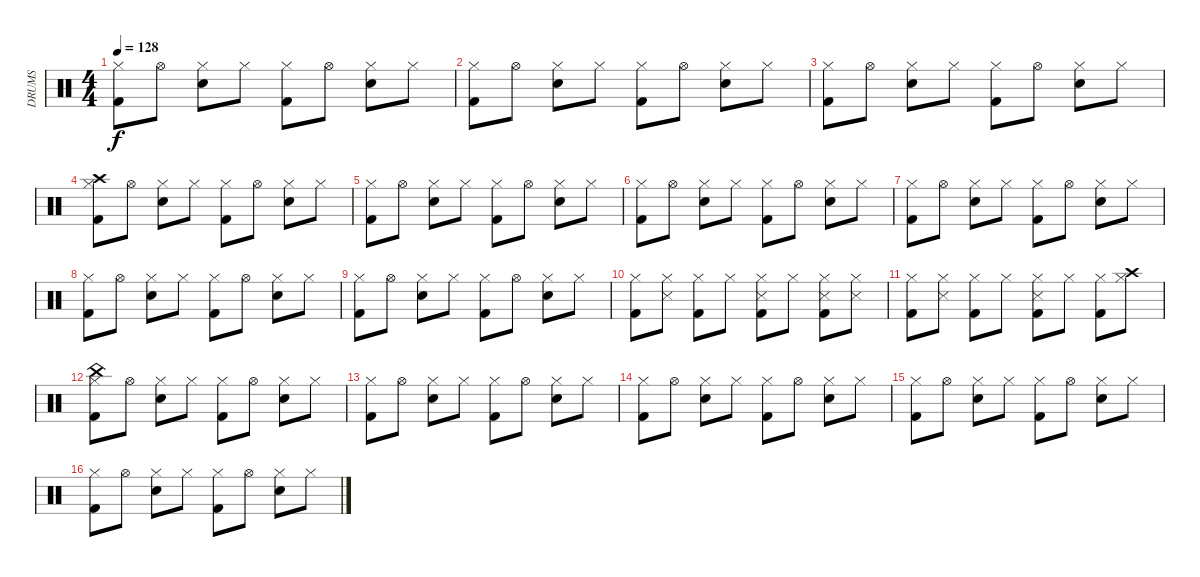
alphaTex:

\track ("DRUMS" "DRUMS") {instrument percussion}
\staff {score}
\articulation defaults
\ts (4 4)
\tempo 128
\clef neutral
\ks c
("Kick (hit) 2" "Hi-Hat (closed)").8{dy f} "Hi-Hat (open)".8 ("Electric Snare (hit)" "Hi-Hat (closed)").8 "Hi-Hat (closed)".8 ("Kick (hit) 2" "Hi-Hat (closed)").8 "Hi-Hat (open)".8 ("Electric Snare (hit)" "Hi-Hat (closed)").8 "Hi-Hat (closed)".8 |
("Kick (hit) 2" "Hi-Hat (closed)").8 "Hi-Hat (open)".8 ("Electric Snare (hit)" "Hi-Hat (closed)").8 "Hi-Hat (closed)".8 ("Kick (hit) 2" "Hi-Hat (closed)").8 "Hi-Hat (open)".8 ("Electric Snare (hit)" "Hi-Hat (closed)").8 "Hi-Hat (closed)".8 |
("Kick (hit) 2" "Hi-Hat (closed)").8 "Hi-Hat (open)".8 ("Electric Snare (hit)" "Hi-Hat (closed)").8 "Hi-Hat (closed)".8 ("Kick (hit) 2" "Hi-Hat (closed)").8 "Hi-Hat (open)".8 ("Electric Snare (hit)" "Hi-Hat (closed)").8 "Hi-Hat (closed)".8 |
("Kick (hit) 2" "Hi-Hat (closed)" "Crash high (hit)").8 "Hi-Hat (open)".8 ("Electric Snare (hit)" "Hi-Hat (closed)").8 "Hi-Hat (closed)".8 ("Kick (hit) 2" "Hi-Hat (closed)").8 "Hi-Hat (open)".8 ("Electric Snare (hit)" "Hi-Hat (closed)").8 "Hi-Hat (closed)".8 |
("Kick (hit) 2" "Hi-Hat (closed)").8 "Hi-Hat (open)".8 ("Electric Snare (hit)" "Hi-Hat (closed)").8 "Hi-Hat (closed)".8 ("Kick (hit) 2" "Hi-Hat (closed)").8 "Hi-Hat (open)".8 ("Electric Snare (hit)" "Hi-Hat (closed)").8 "Hi-Hat (closed)".8 |
("Kick (hit) 2" "Hi-Hat (closed)").8 "Hi-Hat (open)".8 ("Electric Snare (hit)" "Hi-Hat (closed)").8 "Hi-Hat (closed)".8 ("Kick (hit) 2" "Hi-Hat (closed)").8 "Hi-Hat (open)".8 ("Electric Snare (hit)" "Hi-Hat (closed)").8 "Hi-Hat (closed)".8 |
("Kick (hit) 2" "Hi-Hat (closed)").8 "Hi-Hat (open)".8 ("Electric Snare (hit)" "Hi-Hat (closed)").8 "Hi-Hat (closed)".8 ("Kick (hit) 2" "Hi-Hat (closed)").8 "Hi-Hat (open)".8 ("Electric Snare (hit)" "Hi-Hat (closed)").8 "Hi-Hat (closed)".8 |
("Kick (hit) 2" "Hi-Hat (closed)").8 "Hi-Hat (open)".8 ("Electric Snare (hit)" "Hi-Hat (closed)").8 "Hi-Hat (closed)".8 ("Kick (hit) 2" "Hi-Hat (closed)").8 "Hi-Hat (open)".8 ("Electric Snare (hit)" "Hi-Hat (closed)").8 "Hi-Hat (closed)".8 |
("Kick (hit) 2" "Hi-Hat (closed)").8 "Hi-Hat (open)".8 ("Electric Snare (hit)" "Hi-Hat (closed)").8 "Hi-Hat (closed)".8 ("Kick (hit) 2" "Hi-Hat (closed)").8 "Hi-Hat (open)".8 ("Electric Snare (hit)" "Hi-Hat (closed)").8 "Hi-Hat (closed)".8 |
("Kick (hit) 2" "Hi-Hat (closed)").8 ("Snare (side stick) 3" "Hi-Hat (closed)").8 ("Kick (hit) 2" "Hi-Hat (closed)").8 "Hi-Hat (closed)".8 ("Kick (hit) 2" "Hi-Hat (closed)" "Snare (side stick) 3").8 "Hi-Hat (closed)".8 ("Kick (hit) 2" "Hi-Hat (closed)" "Snare (side stick) 3").8 ("Hi-Hat (closed)" "Snare (side stick) 3").8 |
("Kick (hit) 2" "Hi-Hat (closed)").8 ("Snare (side stick) 3" "Hi-Hat (closed)").8 ("Kick (hit) 2" "Hi-Hat (closed)").8 "Hi-Hat (closed)".8 ("Kick (hit) 2" "Hi-Hat (closed)" "Snare (side stick) 3").8 "Hi-Hat (closed)".8 ("Kick (hit) 2" "Hi-Hat (closed)").8 ("Hi-Hat (closed)" "Crash high (hit)").8 |
("Kick (hit) 2" "Hi-Hat (closed)" "China (hit)").8 "Hi-Hat (open)".8 ("Electric Snare (hit)" "Hi-Hat (closed)").8 "Hi-Hat (closed)".8 ("Kick (hit) 2" "Hi-Hat (closed)").8 "Hi-Hat (open)".8 ("Electric Snare (hit)" "Hi-Hat (closed)").8 "Hi-Hat (closed)".8 |
("Kick (hit) 2" "Hi-Hat (closed)").8 "Hi-Hat (open)".8 ("Electric Snare (hit)" "Hi-Hat (closed)").8 "Hi-Hat (closed)".8 ("Kick (hit) 2" "Hi-Hat (closed)").8 "Hi-Hat (open)".8 ("Electric Snare (hit)" "Hi-Hat (closed)").8 "Hi-Hat (closed)".8 |
("Kick (hit) 2" "Hi-Hat (closed)").8 "Hi-Hat (open)".8 ("Electric Snare (hit)" "Hi-Hat (closed)").8 "Hi-Hat (closed)".8 ("Kick (hit) 2" "Hi-Hat (closed)").8 "Hi-Hat (open)".8 ("Electric Snare (hit)" "Hi-Hat (closed)").8 "Hi-Hat (closed)".8 |
("Kick (hit) 2" "Hi-Hat (closed)").8 "Hi-Hat (open)".8 ("Electric Snare (hit)" "Hi-Hat (closed)").8 "Hi-Hat (closed)".8 ("Kick (hit) 2" "Hi-Hat (closed)").8 "Hi-Hat (open)".8 ("Electric Snare (hit)" "Hi-Hat (closed)").8 "Hi-Hat (closed)".8 |
("Kick (hit) 2" "Hi-Hat (closed)").8 "Hi-Hat (open)".8 ("Electric Snare (hit)" "Hi-Hat (closed)").8 "Hi-Hat (closed)".8 ("Kick (hit) 2" "Hi-Hat (closed)").8 "Hi-Hat (open)".8 ("Electric Snare (hit)" "Hi-Hat (closed)").8 "Hi-Hat (closed)".8
